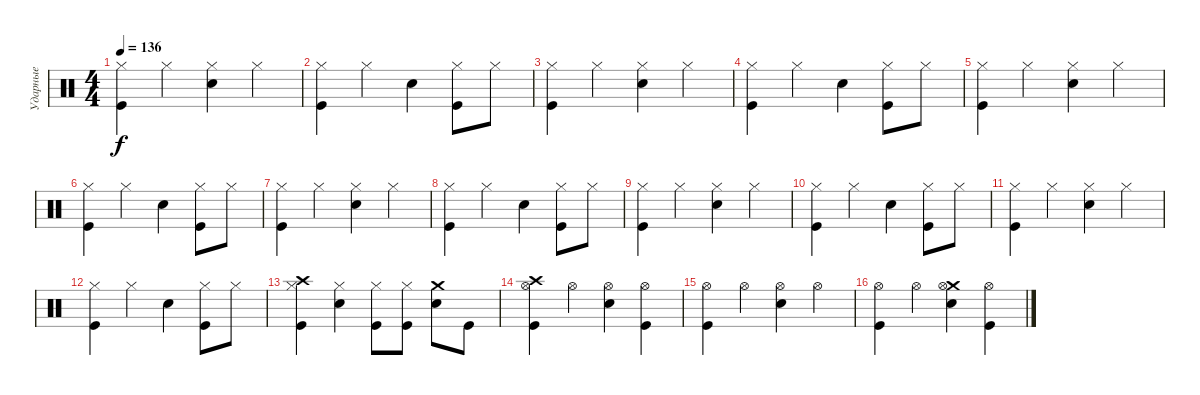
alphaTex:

\track ("Ударные" "Ударные") {instrument percussion}
\staff {score}
\articulation defaults
\ts (4 4)
\tempo 136
\clef neutral
\ks c
("Hi-Hat (closed)" "Kick (hit)").4{dy f} "Hi-Hat (closed)".4 ("Hi-Hat (closed)" "Electric Snare (hit)").4 "Hi-Hat (closed)".4 |
("Kick (hit)" "Hi-Hat (closed)").4 "Hi-Hat (closed)".4 "Electric Snare (hit)".4 ("Hi-Hat (closed)" "Kick (hit)").8 "Hi-Hat (closed)".8 |
("Hi-Hat (closed)" "Kick (hit)").4 "Hi-Hat (closed)".4 ("Hi-Hat (closed)" "Electric Snare (hit)").4 "Hi-Hat (closed)".4 |
("Kick (hit)" "Hi-Hat (closed)").4 "Hi-Hat (closed)".4 "Electric Snare (hit)".4 ("Hi-Hat (closed)" "Kick (hit)").8 "Hi-Hat (closed)".8 |
("Hi-Hat (closed)" "Kick (hit)").4 "Hi-Hat (closed)".4 ("Hi-Hat (closed)" "Electric Snare (hit)").4 "Hi-Hat (closed)".4 |
("Kick (hit)" "Hi-Hat (closed)").4 "Hi-Hat (closed)".4 "Electric Snare (hit)".4 ("Hi-Hat (closed)" "Kick (hit)").8 "Hi-Hat (closed)".8 |
("Hi-Hat (closed)" "Kick (hit)").4 "Hi-Hat (closed)".4 ("Hi-Hat (closed)" "Electric Snare (hit)").4 "Hi-Hat (closed)".4 |
("Kick (hit)" "Hi-Hat (closed)").4 "Hi-Hat (closed)".4 "Electric Snare (hit)".4 ("Hi-Hat (closed)" "Kick (hit)").8 "Hi-Hat (closed)".8 |
("Hi-Hat (closed)" "Kick (hit)").4 "Hi-Hat (closed)".4 ("Hi-Hat (closed)" "Electric Snare (hit)").4 "Hi-Hat (closed)".4 |
("Kick (hit)" "Hi-Hat (closed)").4 "Hi-Hat (closed)".4 "Electric Snare (hit)".4 ("Hi-Hat (closed)" "Kick (hit)").8 "Hi-Hat (closed)".8 |
("Hi-Hat (closed)" "Kick (hit)").4 "Hi-Hat (closed)".4 ("Hi-Hat (closed)" "Electric Snare (hit)").4 "Hi-Hat (closed)".4 |
("Kick (hit)" "Hi-Hat (closed)").4 "Hi-Hat (closed)".4 "Electric Snare (hit)".4 ("Hi-Hat (closed)" "Kick (hit)").8 "Hi-Hat (closed)".8 |
("Crash high (hit)" "Hi-Hat (closed)" "Kick (hit)").4 ("Hi-Hat (closed)" "Electric Snare (hit)").4 ("Hi-Hat (closed)" "Kick (hit)").8 ("Hi-Hat (closed)" "Kick (hit)").8 ("Crash medium (hit)" "Electric Snare (hit)").8 "Kick (hit)".8 |
("Crash high (hit)" "Hi-Hat (open)" "Kick (hit)").4 "Hi-Hat (open)".4 ("Hi-Hat (open)" "Electric Snare (hit)").4 ("Hi-Hat (open)" "Kick (hit)").4 |
("Hi-Hat (open)" "Kick (hit)").4 "Hi-Hat (open)".4 ("Hi-Hat (open)" "Electric Snare (hit)").4 "Hi-Hat (open)".4 |
("Hi-Hat (open)" "Kick (hit)").4 "Hi-Hat (open)".4 ("Crash medium (hit)" "Hi-Hat (open)" "Electric Snare (hit)").4 ("Hi-Hat (open)" "Kick (hit)").4
